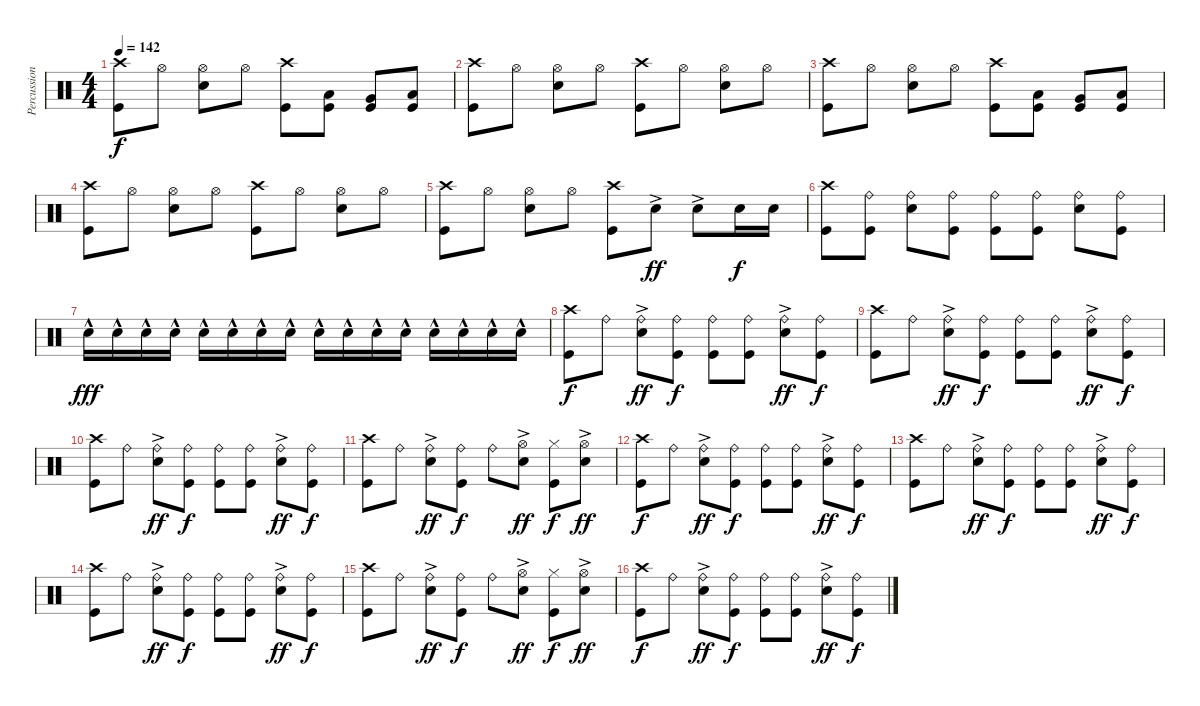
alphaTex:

\track ("Percussion" "Percussion") {instrument percussion}
\staff {score}
\articulation defaults
\ts (4 4)
\tempo 142
\clef neutral
\ks c
("Crash high (hit)" "Kick (hit)").8{dy f} "Hi-Hat (open)".8 ("Hi-Hat (open)" "Electric Snare (hit)").8 "Hi-Hat (open)".8 ("Crash high (hit)" "Kick (hit)").8 ("Low Tom (hit)" "Kick (hit)").8 ("Very Low Tom (hit)" "Kick (hit)").8 ("Low Floor Tom (hit)" "Kick (hit)").8 |
("Crash high (hit)" "Kick (hit)").8 "Hi-Hat (open)".8 ("Hi-Hat (open)" "Electric Snare (hit)").8 "Hi-Hat (open)".8 ("Crash high (hit)" "Kick (hit)").8 "Hi-Hat (open)".8 ("Hi-Hat (open)" "Electric Snare (hit)").8 "Hi-Hat (open)".8 |
("Crash high (hit)" "Kick (hit)").8 "Hi-Hat (open)".8 ("Hi-Hat (open)" "Electric Snare (hit)").8 "Hi-Hat (open)".8 ("Crash high (hit)" "Kick (hit)").8 ("Low Tom (hit)" "Kick (hit)").8 ("Very Low Tom (hit)" "Kick (hit)").8 ("Low Floor Tom (hit)" "Kick (hit)").8 |
("Crash high (hit)" "Kick (hit)").8 "Hi-Hat (open)".8 ("Hi-Hat (open)" "Electric Snare (hit)").8 "Hi-Hat (open)".8 ("Crash high (hit)" "Kick (hit)").8 "Hi-Hat (open)".8 ("Hi-Hat (open)" "Electric Snare (hit)").8 "Hi-Hat (open)".8 |
("Crash high (hit)" "Kick (hit)").8 "Hi-Hat (open)".8 ("Hi-Hat (open)" "Electric Snare (hit)").8 "Hi-Hat (open)".8 ("Crash high (hit)" "Kick (hit)").8 "Electric Snare (hit)"{ac}.8{dy ff} "Electric Snare (hit)"{ac}.8 "Electric Snare (hit)".16{dy f} "Electric Snare (hit)".16 |
("Crash high (hit)" "Kick (hit)").8 ("Ride (bell)" "Kick (hit)").8 ("Ride (bell)" "Electric Snare (hit)").8 ("Ride (bell)" "Kick (hit)").8 ("Ride (bell)" "Kick (hit)").8 ("Ride (bell)" "Kick (hit)").8 ("Ride (bell)" "Electric Snare (hit)").8 ("Ride (bell)" "Kick (hit)").8 |
"Electric Snare (hit)"{hac}.16{dy fff} "Electric Snare (hit)"{hac}.16 "Electric Snare (hit)"{hac}.16 "Electric Snare (hit)"{hac}.16 "Electric Snare (hit)"{hac}.16 "Electric Snare (hit)"{hac}.16 "Electric Snare (hit)"{hac}.16 "Electric Snare (hit)"{hac}.16 "Electric Snare (hit)"{hac}.16 "Electric Snare (hit)"{hac}.16 "Electric Snare (hit)"{hac}.16 "Electric Snare (hit)"{hac}.16 "Electric Snare (hit)"{hac}.16 "Electric Snare (hit)"{hac}.16 "Electric Snare (hit)"{hac}.16 "Electric Snare (hit)"{hac}.16 |
("Crash high (hit)" "Kick (hit)").8{dy f} "Ride (bell)".8 ("Ride (bell)" "Electric Snare (hit)"{ac}).8{dy ff} ("Ride (bell)" "Kick (hit)").8{dy f} ("Ride (bell)" "Kick (hit)").8 ("Ride (bell)" "Kick (hit)").8 ("Ride (bell)" "Electric Snare (hit)"{ac}).8{dy ff} ("Ride (bell)" "Kick (hit)").8{dy f} |
("Crash high (hit)" "Kick (hit)").8 "Ride (bell)".8 ("Ride (bell)" "Electric Snare (hit)"{ac}).8{dy ff} ("Ride (bell)" "Kick (hit)").8{dy f} ("Ride (bell)" "Kick (hit)").8 ("Ride (bell)" "Kick (hit)").8 ("Ride (bell)" "Electric Snare (hit)"{ac}).8{dy ff} ("Ride (bell)" "Kick (hit)").8{dy f} |
("Crash high (hit)" "Kick (hit)").8 "Ride (bell)".8 ("Ride (bell)" "Electric Snare (hit)"{ac}).8{dy ff} ("Ride (bell)" "Kick (hit)").8{dy f} ("Ride (bell)" "Kick (hit)").8 ("Ride (bell)" "Kick (hit)").8 ("Ride (bell)" "Electric Snare (hit)"{ac}).8{dy ff} ("Ride (bell)" "Kick (hit)").8{dy f} |
("Crash high (hit)" "Kick (hit)").8 "Ride (bell)".8 ("Ride (bell)" "Electric Snare (hit)"{ac}).8{dy ff} ("Ride (bell)" "Kick (hit)").8{dy f} "Ride (bell)".8 ("Hi-Hat (open)" "Electric Snare (hit)"{ac}).8{dy ff} ("Hi-Hat (closed)" "Kick (hit)").8{dy f} ("Hi-Hat (open)" "Electric Snare (hit)"{ac}).8{dy ff} |
("Crash high (hit)" "Kick (hit)").8{dy f} "Ride (bell)".8 ("Ride (bell)" "Electric Snare (hit)"{ac}).8{dy ff} ("Ride (bell)" "Kick (hit)").8{dy f} ("Ride (bell)" "Kick (hit)").8 ("Ride (bell)" "Kick (hit)").8 ("Ride (bell)" "Electric Snare (hit)"{ac}).8{dy ff} ("Ride (bell)" "Kick (hit)").8{dy f} |
("Crash high (hit)" "Kick (hit)").8 "Ride (bell)".8 ("Ride (bell)" "Electric Snare (hit)"{ac}).8{dy ff} ("Ride (bell)" "Kick (hit)").8{dy f} ("Ride (bell)" "Kick (hit)").8 ("Ride (bell)" "Kick (hit)").8 ("Ride (bell)" "Electric Snare (hit)"{ac}).8{dy ff} ("Ride (bell)" "Kick (hit)").8{dy f} |
("Crash high (hit)" "Kick (hit)").8 "Ride (bell)".8 ("Ride (bell)" "Electric Snare (hit)"{ac}).8{dy ff} ("Ride (bell)" "Kick (hit)").8{dy f} ("Ride (bell)" "Kick (hit)").8 ("Ride (bell)" "Kick (hit)").8 ("Ride (bell)" "Electric Snare (hit)"{ac}).8{dy ff} ("Ride (bell)" "Kick (hit)").8{dy f} |
("Crash high (hit)" "Kick (hit)").8 "Ride (bell)".8 ("Ride (bell)" "Electric Snare (hit)"{ac}).8{dy ff} ("Ride (bell)" "Kick (hit)").8{dy f} "Ride (bell)".8 ("Hi-Hat (open)" "Electric Snare (hit)"{ac}).8{dy ff} ("Hi-Hat (closed)" "Kick (hit)").8{dy f} ("Hi-Hat (open)" "Electric Snare (hit)"{ac}).8{dy ff} |
("Crash high (hit)" "Kick (hit)").8{dy f} "Ride (bell)".8 ("Ride (bell)" "Electric Snare (hit)"{ac}).8{dy ff} ("Ride (bell)" "Kick (hit)").8{dy f} ("Ride (bell)" "Kick (hit)").8 ("Ride (bell)" "Kick (hit)").8 ("Ride (bell)" "Electric Snare (hit)"{ac}).8{dy ff} ("Ride (bell)" "Kick (hit)").8{dy f}
